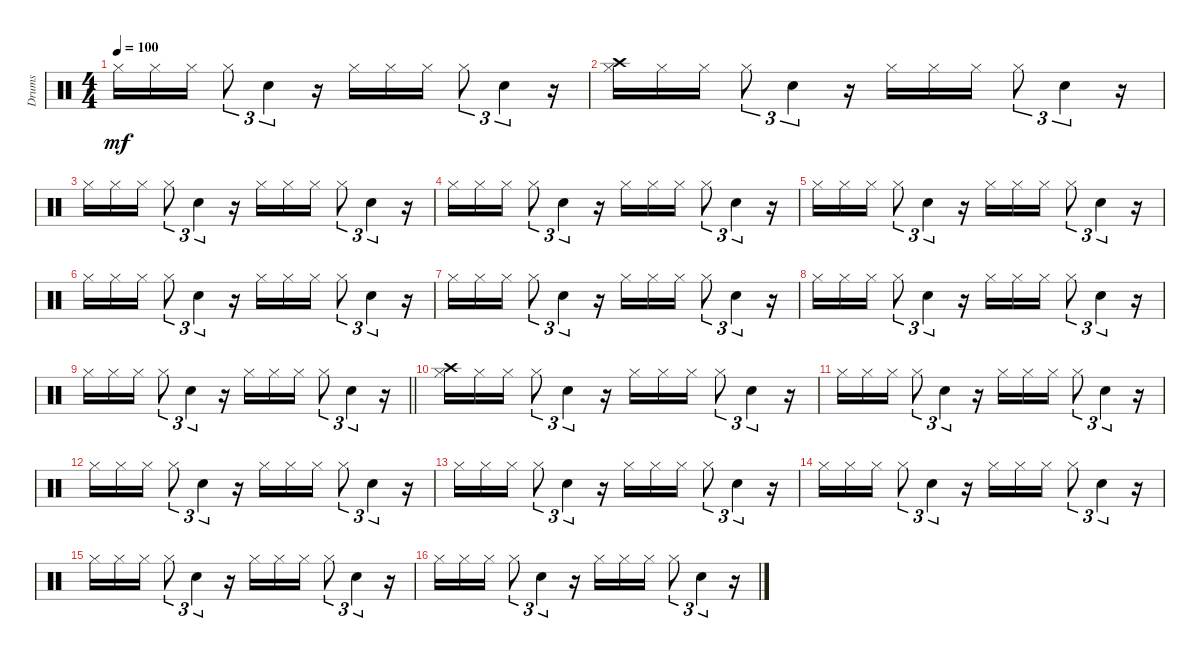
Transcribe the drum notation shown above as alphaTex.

\track ("Drums" "Drums") {instrument percussion}
\staff {score}
\articulation defaults
\ts (4 4)
\tempo 100
\clef neutral
\ks c "Hi-Hat (closed)".16{dy mf} "Hi-Hat (closed)".16 "Hi-Hat (closed)".16 "Hi-Hat (closed)".8{tu (3 2)} "Electric Snare (hit)".4{tu (3 2)}
r.16 "Hi-Hat (closed)".16 "Hi-Hat (closed)".16 "Hi-Hat (closed)".16 "Hi-Hat (closed)".8{tu (3 2)} "Electric Snare (hit)".4{tu (3 2)} r.16 |
("Crash high (hit)" "Hi-Hat (closed)").16 "Hi-Hat (closed)".16 "Hi-Hat (closed)".16 "Hi-Hat (closed)".8{tu (3 2)} "Electric Snare (hit)".4{tu (3 2)} r.16 "Hi-Hat (closed)".16 "Hi-Hat (closed)".16 "Hi-Hat (closed)".16 "Hi-Hat (closed)".8{tu (3 2)} "Electric Snare (hit)".4{tu (3 2)} r.16 |
"Hi-Hat (closed)".16 "Hi-Hat (closed)".16 "Hi-Hat (closed)".16 "Hi-Hat (closed)".8{tu (3 2)} "Electric Snare (hit)".4{tu (3 2)} r.16 "Hi-Hat (closed)".16 "Hi-Hat (closed)".16 "Hi-Hat (closed)".16 "Hi-Hat (closed)".8{tu (3 2)} "Electric Snare (hit)".4{tu (3 2)} r.16 |
"Hi-Hat (closed)".16 "Hi-Hat (closed)".16 "Hi-Hat (closed)".16 "Hi-Hat (closed)".8{tu (3 2)} "Electric Snare (hit)".4{tu (3 2)} r.16 "Hi-Hat (closed)".16 "Hi-Hat (closed)".16 "Hi-Hat (closed)".16 "Hi-Hat (closed)".8{tu (3 2)} "Electric Snare (hit)".4{tu (3 2)} r.16 |
"Hi-Hat (closed)".16 "Hi-Hat (closed)".16 "Hi-Hat (closed)".16 "Hi-Hat (closed)".8{tu (3 2)} "Electric Snare (hit)".4{tu (3 2)} r.16 "Hi-Hat (closed)".16 "Hi-Hat (closed)".16 "Hi-Hat (closed)".16 "Hi-Hat (closed)".8{tu (3 2)} "Electric Snare (hit)".4{tu (3 2)} r.16 |
"Hi-Hat (closed)".16 "Hi-Hat (closed)".16 "Hi-Hat (closed)".16 "Hi-Hat (closed)".8{tu (3 2)} "Electric Snare (hit)".4{tu (3 2)} r.16 "Hi-Hat (closed)".16 "Hi-Hat (closed)".16 "Hi-Hat (closed)".16 "Hi-Hat (closed)".8{tu (3 2)} "Electric Snare (hit)".4{tu (3 2)} r.16 |
"Hi-Hat (closed)".16 "Hi-Hat (closed)".16 "Hi-Hat (closed)".16 "Hi-Hat (closed)".8{tu (3 2)} "Electric Snare (hit)".4{tu (3 2)} r.16 "Hi-Hat (closed)".16 "Hi-Hat (closed)".16 "Hi-Hat (closed)".16 "Hi-Hat (closed)".8{tu (3 2)} "Electric Snare (hit)".4{tu (3 2)} r.16 |
"Hi-Hat (closed)".16 "Hi-Hat (closed)".16 "Hi-Hat (closed)".16 "Hi-Hat (closed)".8{tu (3 2)} "Electric Snare (hit)".4{tu (3 2)} r.16 "Hi-Hat (closed)".16 "Hi-Hat (closed)".16 "Hi-Hat (closed)".16 "Hi-Hat (closed)".8{tu (3 2)} "Electric Snare (hit)".4{tu (3 2)} r.16 |
\barLineRight lightlight "Hi-Hat (closed)".16 "Hi-Hat (closed)".16 "Hi-Hat (closed)".16 "Hi-Hat (closed)".8{tu (3 2)} "Electric Snare (hit)".4{tu (3 2)}
r.16 "Hi-Hat (closed)".16 "Hi-Hat (closed)".16 "Hi-Hat (closed)".16 "Hi-Hat (closed)".8{tu (3 2)} "Electric Snare (hit)".4{tu (3 2)} r.16 |
("Crash high (hit)" "Hi-Hat (closed)").16 "Hi-Hat (closed)".16 "Hi-Hat (closed)".16 "Hi-Hat (closed)".8{tu (3 2)} "Electric Snare (hit)".4{tu (3 2)} r.16 "Hi-Hat (closed)".16 "Hi-Hat (closed)".16 "Hi-Hat (closed)".16 "Hi-Hat (closed)".8{tu (3 2)} "Electric Snare (hit)".4{tu (3 2)} r.16 |
"Hi-Hat (closed)".16 "Hi-Hat (closed)".16 "Hi-Hat (closed)".16 "Hi-Hat (closed)".8{tu (3 2)} "Electric Snare (hit)".4{tu (3 2)} r.16 "Hi-Hat (closed)".16 "Hi-Hat (closed)".16 "Hi-Hat (closed)".16 "Hi-Hat (closed)".8{tu (3 2)} "Electric Snare (hit)".4{tu (3 2)} r.16 |
"Hi-Hat (closed)".16 "Hi-Hat (closed)".16 "Hi-Hat (closed)".16 "Hi-Hat (closed)".8{tu (3 2)} "Electric Snare (hit)".4{tu (3 2)} r.16 "Hi-Hat (closed)".16 "Hi-Hat (closed)".16 "Hi-Hat (closed)".16 "Hi-Hat (closed)".8{tu (3 2)} "Electric Snare (hit)".4{tu (3 2)} r.16 |
"Hi-Hat (closed)".16 "Hi-Hat (closed)".16 "Hi-Hat (closed)".16 "Hi-Hat (closed)".8{tu (3 2)} "Electric Snare (hit)".4{tu (3 2)} r.16 "Hi-Hat (closed)".16 "Hi-Hat (closed)".16 "Hi-Hat (closed)".16 "Hi-Hat (closed)".8{tu (3 2)} "Electric Snare (hit)".4{tu (3 2)} r.16 |
"Hi-Hat (closed)".16 "Hi-Hat (closed)".16 "Hi-Hat (closed)".16 "Hi-Hat (closed)".8{tu (3 2)} "Electric Snare (hit)".4{tu (3 2)} r.16 "Hi-Hat (closed)".16 "Hi-Hat (closed)".16 "Hi-Hat (closed)".16 "Hi-Hat (closed)".8{tu (3 2)} "Electric Snare (hit)".4{tu (3 2)} r.16 |
"Hi-Hat (closed)".16 "Hi-Hat (closed)".16 "Hi-Hat (closed)".16 "Hi-Hat (closed)".8{tu (3 2)} "Electric Snare (hit)".4{tu (3 2)} r.16 "Hi-Hat (closed)".16 "Hi-Hat (closed)".16 "Hi-Hat (closed)".16 "Hi-Hat (closed)".8{tu (3 2)} "Electric Snare (hit)".4{tu (3 2)} r.16 |
"Hi-Hat (closed)".16 "Hi-Hat (closed)".16 "Hi-Hat (closed)".16 "Hi-Hat (closed)".8{tu (3 2)} "Electric Snare (hit)".4{tu (3 2)} r.16 "Hi-Hat (closed)".16 "Hi-Hat (closed)".16 "Hi-Hat (closed)".16 "Hi-Hat (closed)".8{tu (3 2)} "Electric Snare (hit)".4{tu (3 2)} r.16
